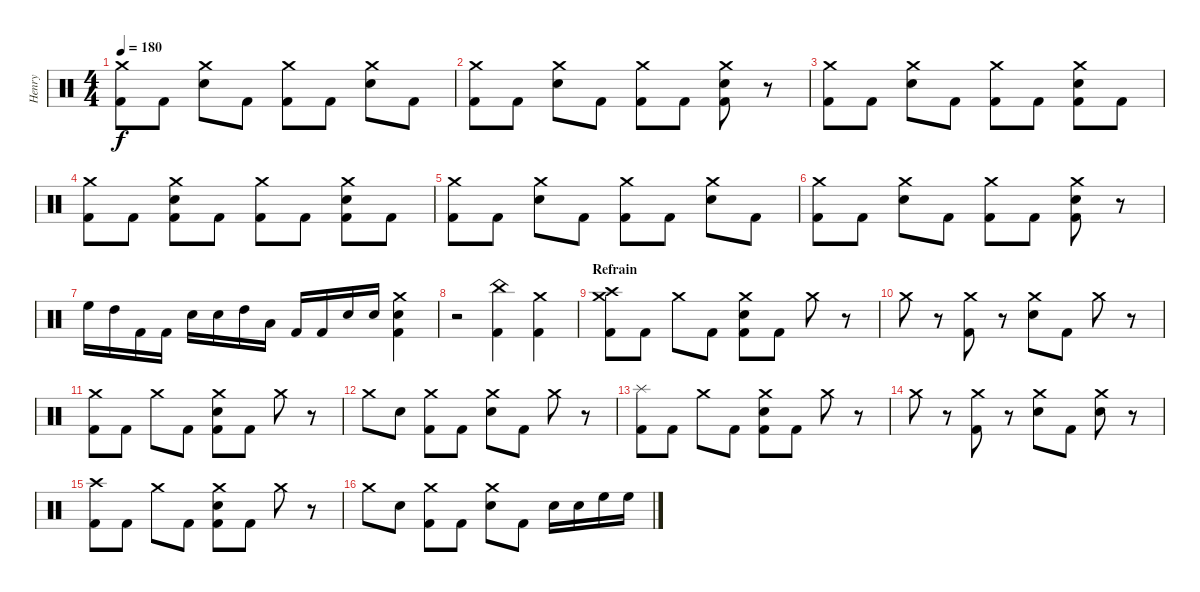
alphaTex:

\track ("Henry" "Henry") {instrument percussion}
\staff {score}
\articulation defaults
\ts (4 4)
\tempo 180
\clef neutral
\ks c
("Crash medium (hit)" "Kick (hit) 2").8{dy f} "Kick (hit) 2".8 ("Crash medium (hit)" "Snare (hit) 2").8 "Kick (hit) 2".8 ("Crash medium (hit)" "Kick (hit) 2").8 "Kick (hit) 2".8 ("Crash medium (hit)" "Snare (hit) 2").8 "Kick (hit) 2".8 |
("Crash medium (hit)" "Kick (hit) 2").8 "Kick (hit) 2".8 ("Crash medium (hit)" "Snare (hit) 2").8 "Kick (hit) 2".8 ("Crash medium (hit)" "Kick (hit) 2").8 "Kick (hit) 2".8 ("Crash medium (hit)" "Snare (hit) 2" "Kick (hit) 2").8 r.8 |
("Crash medium (hit)" "Kick (hit) 2").8 "Kick (hit) 2".8 ("Crash medium (hit)" "Snare (hit) 2").8 "Kick (hit) 2".8 ("Crash medium (hit)" "Kick (hit) 2").8 "Kick (hit) 2".8 ("Crash medium (hit)" "Snare (hit) 2" "Kick (hit) 2").8 "Kick (hit) 2".8 |
("Crash medium (hit)" "Kick (hit) 2").8 "Kick (hit) 2".8 ("Crash medium (hit)" "Snare (hit) 2" "Kick (hit) 2").8 "Kick (hit) 2".8 ("Crash medium (hit)" "Kick (hit) 2").8 "Kick (hit) 2".8 ("Crash medium (hit)" "Snare (hit) 2" "Kick (hit) 2").8 "Kick (hit) 2".8 |
("Crash medium (hit)" "Kick (hit) 2").8 "Kick (hit) 2".8 ("Crash medium (hit)" "Snare (hit) 2").8 "Kick (hit) 2".8 ("Crash medium (hit)" "Kick (hit) 2").8 "Kick (hit) 2".8 ("Crash medium (hit)" "Snare (hit) 2").8 "Kick (hit) 2".8 |
("Crash medium (hit)" "Kick (hit) 2").8 "Kick (hit) 2".8 ("Crash medium (hit)" "Snare (hit) 2").8 "Kick (hit) 2".8 ("Crash medium (hit)" "Kick (hit) 2").8 "Kick (hit) 2".8 ("Crash medium (hit)" "Snare (hit) 2" "Kick (hit) 2").8 r.8 |
"High Floor Tom (hit)".16 "High Tom (hit)".16 "Kick (hit) 2".16 "Kick (hit) 2".16 "Snare (hit) 2".16 "Snare (hit) 2".16 "High Tom (hit)".16 "Low Tom (hit)".16 "Kick (hit) 2".16 "Kick (hit) 2".16 "Snare (hit) 2".16 "Snare (hit) 2".16 ("Crash medium (hit)" "Snare (hit) 2" "Kick (hit) 2").4 |
r.2 ("China (hit)" "Kick (hit) 2").4 ("Crash medium (hit)" "Kick (hit) 2").4 |
\section ("" "Refrain")
("Crash high (hit)" "Crash medium (hit)" "Kick (hit) 2").8 "Kick (hit) 2".8 "Crash medium (hit)".8 "Kick (hit) 2".8 ("Crash medium (hit)" "Snare (hit) 2" "Kick (hit) 2").8 "Kick (hit) 2".8 "Crash medium (hit)".8 r.8 |
"Crash medium (hit)".8 r.8 ("Crash medium (hit)" "Kick (hit) 2").8 r.8 ("Crash medium (hit)" "Snare (hit) 2").8 "Kick (hit) 2".8 "Crash medium (hit)".8 r.8 |
("Crash medium (hit)" "Kick (hit) 2").8 "Kick (hit) 2".8 "Crash medium (hit)".8 "Kick (hit) 2".8 ("Crash medium (hit)" "Snare (hit) 2" "Kick (hit) 2").8 "Kick (hit) 2".8 "Crash medium (hit)".8 r.8 |
"Crash medium (hit)".8 "Snare (hit) 2".8 ("Crash medium (hit)" "Kick (hit) 2").8 "Kick (hit) 2".8 ("Crash medium (hit)" "Snare (hit) 2").8 "Kick (hit) 2".8 "Crash medium (hit)".8 r.8 |
("Splash (hit)" "Kick (hit) 2").8 "Kick (hit) 2".8 "Crash medium (hit)".8 "Kick (hit) 2".8 ("Crash medium (hit)" "Snare (hit) 2" "Kick (hit) 2").8 "Kick (hit) 2".8 "Crash medium (hit)".8 r.8 |
"Crash medium (hit)".8 r.8 ("Crash medium (hit)" "Kick (hit) 2").8 r.8 ("Crash medium (hit)" "Snare (hit) 2").8 "Kick (hit) 2".8 ("Crash medium (hit)" "Snare (hit) 2").8 r.8 |
("Crash high (hit)" "Kick (hit) 2").8 "Kick (hit) 2".8 "Crash medium (hit)".8 "Kick (hit) 2".8 ("Crash medium (hit)" "Snare (hit) 2" "Kick (hit) 2").8 "Kick (hit) 2".8 "Crash medium (hit)".8 r.8 |
"Crash medium (hit)".8 "Snare (hit) 2".8 ("Crash medium (hit)" "Kick (hit) 2").8 "Kick (hit) 2".8 ("Crash medium (hit)" "Snare (hit) 2").8 "Kick (hit) 2".8 "Snare (hit) 2".16 "Snare (hit) 2".16 "High Floor Tom (hit)".16 "High Floor Tom (hit)".16
